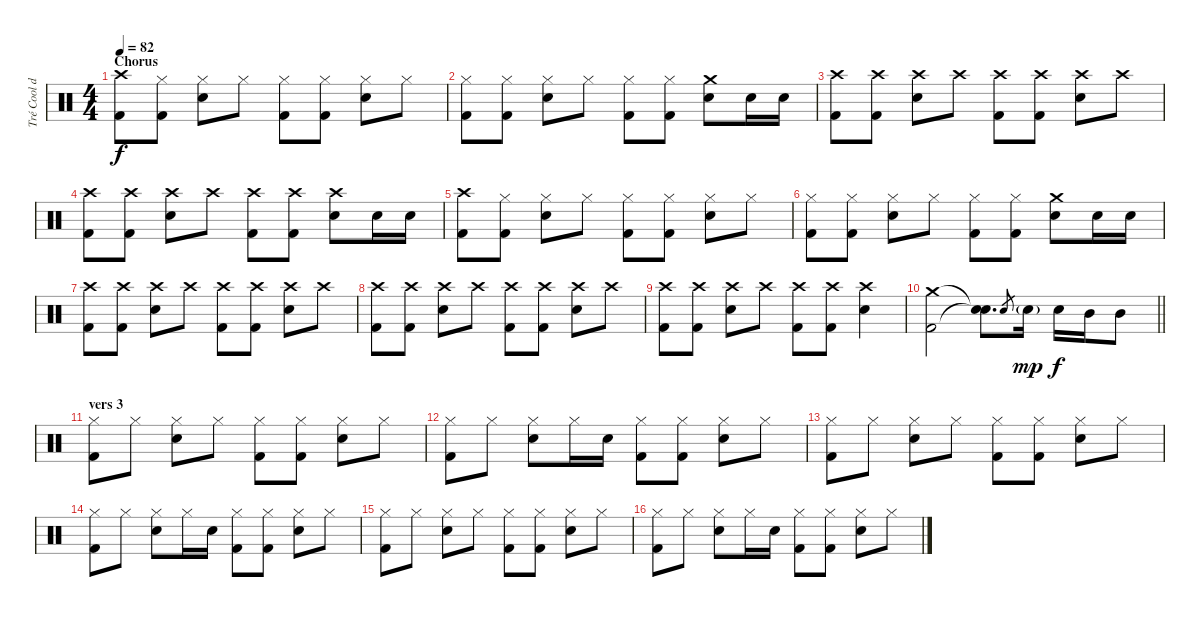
\track ("Tré Cool drums" "Tré Cool d") {instrument percussion}
\staff {score}
\articulation defaults
\ts (4 4)
\section ("" "Chorus")
\tempo 82
\clef neutral
\ks c
("Crash high (hit)" "Kick (hit) 2").8{dy f} ("Hi-Hat (closed)" "Kick (hit) 2").8 ("Hi-Hat (closed)" "Snare (hit) 2").8 "Hi-Hat (closed)".8 ("Hi-Hat (closed)" "Kick (hit) 2").8 ("Hi-Hat (closed)" "Kick (hit) 2").8 ("Hi-Hat (closed)" "Snare (hit) 2").8 "Hi-Hat (closed)".8 |
("Hi-Hat (closed)" "Kick (hit) 2").8 ("Hi-Hat (closed)" "Kick (hit) 2").8 ("Hi-Hat (closed)" "Snare (hit) 2").8 "Hi-Hat (closed)".8 ("Hi-Hat (closed)" "Kick (hit) 2").8 ("Hi-Hat (closed)" "Kick (hit) 2").8 ("Crash medium (hit)" "Snare (hit) 2").8 "Snare (hit) 2".16 "Snare (hit) 2".16 |
("Crash high (hit)" "Kick (hit) 2").8 ("Crash high (hit)" "Kick (hit) 2").8 ("Crash high (hit)" "Snare (hit) 2").8 "Crash high (hit)".8 ("Crash high (hit)" "Kick (hit) 2").8 ("Crash high (hit)" "Kick (hit) 2").8 ("Crash high (hit)" "Snare (hit) 2").8 "Crash high (hit)".8 |
("Crash high (hit)" "Kick (hit) 2").8 ("Crash high (hit)" "Kick (hit) 2").8 ("Crash high (hit)" "Snare (hit) 2").8 "Crash high (hit)".8 ("Crash high (hit)" "Kick (hit) 2").8 ("Crash high (hit)" "Kick (hit) 2").8 ("Crash high (hit)" "Snare (hit) 2").8 "Snare (hit) 2".16 "Snare (hit) 2".16 |
("Crash high (hit)" "Kick (hit) 2").8 ("Hi-Hat (closed)" "Kick (hit) 2").8 ("Hi-Hat (closed)" "Snare (hit) 2").8 "Hi-Hat (closed)".8 ("Hi-Hat (closed)" "Kick (hit) 2").8 ("Hi-Hat (closed)" "Kick (hit) 2").8 ("Hi-Hat (closed)" "Snare (hit) 2").8 "Hi-Hat (closed)".8 |
("Hi-Hat (closed)" "Kick (hit) 2").8 ("Hi-Hat (closed)" "Kick (hit) 2").8 ("Hi-Hat (closed)" "Snare (hit) 2").8 "Hi-Hat (closed)".8 ("Hi-Hat (closed)" "Kick (hit) 2").8 ("Hi-Hat (closed)" "Kick (hit) 2").8 ("Crash medium (hit)" "Snare (hit) 2").8 "Snare (hit) 2".16 "Snare (hit) 2".16 |
("Crash high (hit)" "Kick (hit) 2").8 ("Crash high (hit)" "Kick (hit) 2").8 ("Crash high (hit)" "Snare (hit) 2").8 "Crash high (hit)".8 ("Crash high (hit)" "Kick (hit) 2").8 ("Crash high (hit)" "Kick (hit) 2").8 ("Crash high (hit)" "Snare (hit) 2").8 "Crash high (hit)".8 |
("Crash high (hit)" "Kick (hit) 2").8 ("Crash high (hit)" "Kick (hit) 2").8 ("Crash high (hit)" "Snare (hit) 2").8 "Crash high (hit)".8 ("Crash high (hit)" "Kick (hit) 2").8 ("Crash high (hit)" "Kick (hit) 2").8 ("Crash high (hit)" "Snare (hit) 2").8 "Crash high (hit)".8 |
("Crash high (hit)" "Kick (hit) 2").8 ("Crash high (hit)" "Kick (hit) 2").8 ("Crash high (hit)" "Snare (hit) 2").8 "Crash high (hit)".8 ("Crash high (hit)" "Kick (hit) 2").8 ("Crash high (hit)" "Kick (hit) 2").8 ("Crash high (hit)" "Snare (hit) 2").4 |
\barLineRight lightlight
("Crash medium (hit)" "Kick (hit) 2").2 ("Snare (hit)"{t} "Snare (hit)"{t}).8{d} "Snare (hit) 2".8{gr} "Snare (hit) 2"{g}.16{dy mp} "Snare (hit) 2".16{dy f} "Mid Tom (hit)".16 "Mid Tom (hit)".8 |
\section ("" "vers 3")
("Hi-Hat (closed)" "Kick (hit) 2").8 "Hi-Hat (closed)".8 ("Hi-Hat (closed)" "Snare (hit) 2").8 "Hi-Hat (closed)".8 ("Hi-Hat (closed)" "Kick (hit) 2").8 ("Hi-Hat (closed)" "Kick (hit) 2").8 ("Hi-Hat (closed)" "Snare (hit) 2").8 "Hi-Hat (closed)".8 |
("Hi-Hat (closed)" "Kick (hit) 2").8 "Hi-Hat (closed)".8 ("Hi-Hat (closed)" "Snare (hit) 2").8 "Hi-Hat (closed)".16 "Snare (hit) 2".16 ("Hi-Hat (closed)" "Kick (hit) 2").8 ("Hi-Hat (closed)" "Kick (hit) 2").8 ("Hi-Hat (closed)" "Snare (hit) 2").8 "Hi-Hat (closed)".8 |
("Hi-Hat (closed)" "Kick (hit) 2").8 "Hi-Hat (closed)".8 ("Hi-Hat (closed)" "Snare (hit) 2").8 "Hi-Hat (closed)".8 ("Hi-Hat (closed)" "Kick (hit) 2").8 ("Hi-Hat (closed)" "Kick (hit) 2").8 ("Hi-Hat (closed)" "Snare (hit) 2").8 "Hi-Hat (closed)".8 |
("Hi-Hat (closed)" "Kick (hit) 2").8 "Hi-Hat (closed)".8 ("Hi-Hat (closed)" "Snare (hit) 2").8 "Hi-Hat (closed)".16 "Snare (hit) 2".16 ("Hi-Hat (closed)" "Kick (hit) 2").8 ("Hi-Hat (closed)" "Kick (hit) 2").8 ("Hi-Hat (closed)" "Snare (hit) 2").8 "Hi-Hat (closed)".8 |
("Hi-Hat (closed)" "Kick (hit) 2").8 "Hi-Hat (closed)".8 ("Hi-Hat (closed)" "Snare (hit) 2").8 "Hi-Hat (closed)".8 ("Hi-Hat (closed)" "Kick (hit) 2").8 ("Hi-Hat (closed)" "Kick (hit) 2").8 ("Hi-Hat (closed)" "Snare (hit) 2").8 "Hi-Hat (closed)".8 |
("Hi-Hat (closed)" "Kick (hit) 2").8 "Hi-Hat (closed)".8 ("Hi-Hat (closed)" "Snare (hit) 2").8 "Hi-Hat (closed)".16 "Snare (hit) 2".16 ("Hi-Hat (closed)" "Kick (hit) 2").8 ("Hi-Hat (closed)" "Kick (hit) 2").8 ("Hi-Hat (closed)" "Snare (hit) 2").8 "Hi-Hat (closed)".8
